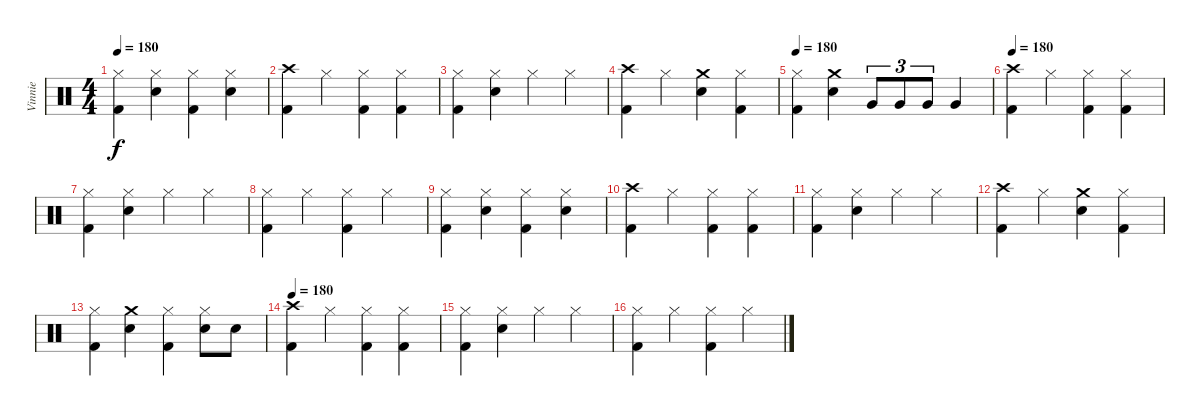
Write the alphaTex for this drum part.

\track ("Vinnie" "Vinnie") {instrument percussion}
\staff {score}
\articulation defaults
\ts (4 4)
\tempo 180
\clef neutral
\ks c
("Hi-Hat (closed)" "Kick (hit) 2").4{dy f} ("Hi-Hat (closed)" "Electric Snare (hit)").4 ("Hi-Hat (closed)" "Kick (hit) 2").4 ("Hi-Hat (closed)" "Electric Snare (hit)").4 |
("Crash high (hit)" "Kick (hit) 2").4 "Hi-Hat (closed)".4 ("Hi-Hat (closed)" "Kick (hit) 2").4 ("Hi-Hat (closed)" "Kick (hit) 2").4 |
("Hi-Hat (closed)" "Kick (hit) 2").4 ("Hi-Hat (closed)" "Electric Snare (hit)").4 "Hi-Hat (closed)".4 "Hi-Hat (closed)".4 |
("Crash high (hit)" "Kick (hit) 2").4 "Hi-Hat (closed)".4 ("Crash medium (hit)" "Electric Snare (hit)").4 ("Hi-Hat (closed)" "Kick (hit) 2").4 |
\tempo 180
("Hi-Hat (closed)" "Kick (hit) 2").4 ("Crash medium (hit)" "Electric Snare (hit)").4 "Very Low Tom (hit)".8{tu (3 2)} "Very Low Tom (hit)".8{tu (3 2)} "Very Low Tom (hit)".8{tu (3 2)} "Very Low Tom (hit)".4 |
\tempo 180
("Crash high (hit)" "Kick (hit) 2").4 "Hi-Hat (closed)".4 ("Hi-Hat (closed)" "Kick (hit) 2").4 ("Hi-Hat (closed)" "Kick (hit) 2").4 |
("Hi-Hat (closed)" "Kick (hit) 2").4 ("Hi-Hat (closed)" "Electric Snare (hit)").4 "Hi-Hat (closed)".4 "Hi-Hat (closed)".4 |
("Hi-Hat (closed)" "Kick (hit) 2").4 "Hi-Hat (closed)".4 ("Hi-Hat (closed)" "Kick (hit) 2").4 "Hi-Hat (closed)".4 |
("Hi-Hat (closed)" "Kick (hit) 2").4 ("Hi-Hat (closed)" "Electric Snare (hit)").4 ("Hi-Hat (closed)" "Kick (hit) 2").4 ("Hi-Hat (closed)" "Electric Snare (hit)").4 |
("Crash high (hit)" "Kick (hit) 2").4 "Hi-Hat (closed)".4 ("Hi-Hat (closed)" "Kick (hit) 2").4 ("Hi-Hat (closed)" "Kick (hit) 2").4 |
("Hi-Hat (closed)" "Kick (hit) 2").4 ("Hi-Hat (closed)" "Electric Snare (hit)").4 "Hi-Hat (closed)".4 "Hi-Hat (closed)".4 |
("Crash high (hit)" "Kick (hit) 2").4 "Hi-Hat (closed)".4 ("Crash medium (hit)" "Electric Snare (hit)").4 ("Hi-Hat (closed)" "Kick (hit) 2").4 |
("Hi-Hat (closed)" "Kick (hit) 2").4 ("Crash medium (hit)" "Electric Snare (hit)").4 ("Hi-Hat (closed)" "Kick (hit) 2").4 ("Hi-Hat (closed)" "Electric Snare (hit)").8 "Electric Snare (hit)".8 |
\tempo 180
("Crash high (hit)" "Kick (hit) 2").4 "Hi-Hat (closed)".4 ("Hi-Hat (closed)" "Kick (hit) 2").4 ("Hi-Hat (closed)" "Kick (hit) 2").4 |
("Hi-Hat (closed)" "Kick (hit) 2").4 ("Hi-Hat (closed)" "Electric Snare (hit)").4 "Hi-Hat (closed)".4 "Hi-Hat (closed)".4 |
("Hi-Hat (closed)" "Kick (hit) 2").4 "Hi-Hat (closed)".4 ("Hi-Hat (closed)" "Kick (hit) 2").4 "Hi-Hat (closed)".4
